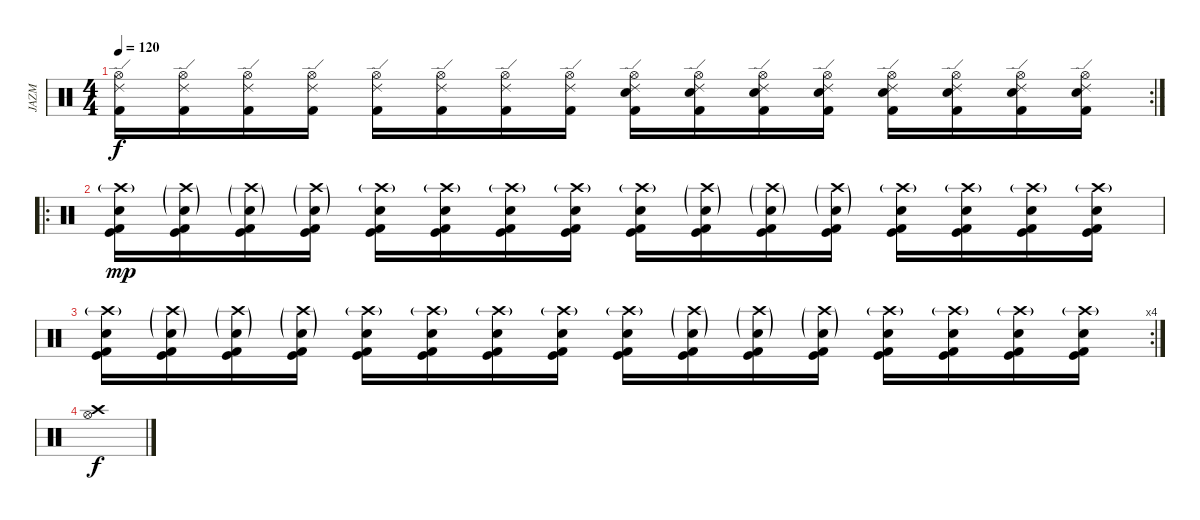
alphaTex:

\track ("JAZM" "JAZM") {instrument percussion}
\staff {score}
\articulation defaults
\rc 2
\ts (4 4)
\tempo 120
\clef neutral
\ks c
("Hi-Hat (open)" "Kick (hit) 2" "Ride (edge) 2").16{dy f} ("Hi-Hat (open)" "Kick (hit) 2" "Ride (edge) 2").16 ("Hi-Hat (open)" "Kick (hit) 2" "Ride (edge) 2").16 ("Hi-Hat (open)" "Kick (hit) 2" "Ride (edge) 2").16 ("Hi-Hat (open)" "Kick (hit) 2" "Ride (edge) 2").16 ("Hi-Hat (open)" "Kick (hit) 2" "Ride (edge) 2").16 ("Hi-Hat (open)" "Kick (hit) 2" "Ride (edge) 2").16 ("Hi-Hat (open)" "Kick (hit) 2" "Ride (edge) 2").16 ("Electric Snare (hit)" "Hi-Hat (open)" "Kick (hit) 2" "Ride (edge) 2").16 ("Electric Snare (hit)" "Hi-Hat (open)" "Kick (hit) 2" "Ride (edge) 2").16 ("Electric Snare (hit)" "Hi-Hat (open)" "Kick (hit) 2" "Ride (edge) 2").16 ("Electric Snare (hit)" "Hi-Hat (open)" "Kick (hit) 2" "Ride (edge) 2").16 ("Electric Snare (hit)" "Hi-Hat (open)" "Kick (hit) 2" "Ride (edge) 2").16 ("Electric Snare (hit)" "Hi-Hat (open)" "Kick (hit) 2" "Ride (edge) 2").16 ("Electric Snare (hit)" "Hi-Hat (open)" "Kick (hit) 2" "Ride (edge) 2").16 ("Electric Snare (hit)" "Hi-Hat (open)" "Kick (hit) 2" "Ride (edge) 2").16 |
\ro
("Kick (hit) 2" "Kick (hit)" "Crash high (hit)"{g} "Electric Snare (hit)").16{dy mp volume 11} ("Kick (hit) 2" "Kick (hit)" "Crash high (hit)"{g} "Electric Snare (hit)"{g}).16 ("Kick (hit) 2" "Kick (hit)" "Crash high (hit)"{g} "Electric Snare (hit)"{g}).16 ("Kick (hit) 2" "Kick (hit)" "Crash high (hit)"{g} "Electric Snare (hit)"{g}).16 ("Kick (hit) 2" "Kick (hit)" "Crash high (hit)"{g} "Electric Snare (hit)").16 ("Kick (hit) 2" "Kick (hit)" "Crash high (hit)"{g} "Electric Snare (hit)").16 ("Kick (hit) 2" "Kick (hit)" "Crash high (hit)"{g} "Electric Snare (hit)").16 ("Kick (hit) 2" "Kick (hit)" "Crash high (hit)"{g} "Electric Snare (hit)").16 ("Kick (hit) 2" "Kick (hit)" "Crash high (hit)"{g} "Electric Snare (hit)").16 ("Kick (hit) 2" "Kick (hit)" "Crash high (hit)"{g} "Electric Snare (hit)"{g}).16 ("Kick (hit) 2" "Kick (hit)" "Crash high (hit)"{g} "Electric Snare (hit)"{g}).16 ("Kick (hit) 2" "Kick (hit)" "Crash high (hit)"{g} "Electric Snare (hit)"{g}).16 ("Kick (hit) 2" "Kick (hit)" "Crash high (hit)"{g} "Electric Snare (hit)").16 ("Kick (hit) 2" "Kick (hit)" "Crash high (hit)"{g} "Electric Snare (hit)").16 ("Kick (hit) 2" "Kick (hit)" "Crash high (hit)"{g} "Electric Snare (hit)").16 ("Kick (hit) 2" "Kick (hit)" "Crash high (hit)"{g} "Electric Snare (hit)").16 |
\rc 4
("Kick (hit) 2" "Kick (hit)" "Crash high (hit)"{g} "Electric Snare (hit)").16 ("Kick (hit) 2" "Kick (hit)" "Crash high (hit)"{g} "Electric Snare (hit)"{g}).16 ("Kick (hit) 2" "Kick (hit)" "Crash high (hit)"{g} "Electric Snare (hit)"{g}).16 ("Kick (hit) 2" "Kick (hit)" "Crash high (hit)"{g} "Electric Snare (hit)"{g}).16 ("Kick (hit) 2" "Kick (hit)" "Crash high (hit)"{g} "Electric Snare (hit)").16 ("Kick (hit) 2" "Kick (hit)" "Crash high (hit)"{g} "Electric Snare (hit)").16 ("Kick (hit) 2" "Kick (hit)" "Crash high (hit)"{g} "Electric Snare (hit)").16 ("Kick (hit) 2" "Kick (hit)" "Crash high (hit)"{g} "Electric Snare (hit)").16 ("Kick (hit) 2" "Kick (hit)" "Crash high (hit)"{g} "Electric Snare (hit)").16 ("Kick (hit) 2" "Kick (hit)" "Crash high (hit)"{g} "Electric Snare (hit)"{g}).16 ("Kick (hit) 2" "Kick (hit)" "Crash high (hit)"{g} "Electric Snare (hit)"{g}).16 ("Kick (hit) 2" "Kick (hit)" "Crash high (hit)"{g} "Electric Snare (hit)"{g}).16 ("Kick (hit) 2" "Kick (hit)" "Crash high (hit)"{g} "Electric Snare (hit)").16 ("Kick (hit) 2" "Kick (hit)" "Crash high (hit)"{g} "Electric Snare (hit)").16 ("Kick (hit) 2" "Kick (hit)" "Crash high (hit)"{g} "Electric Snare (hit)").16 ("Kick (hit) 2" "Kick (hit)" "Crash high (hit)"{g} "Electric Snare (hit)").16 |
("Hi-Hat (open)" "Crash high (hit)").1{dy f}
